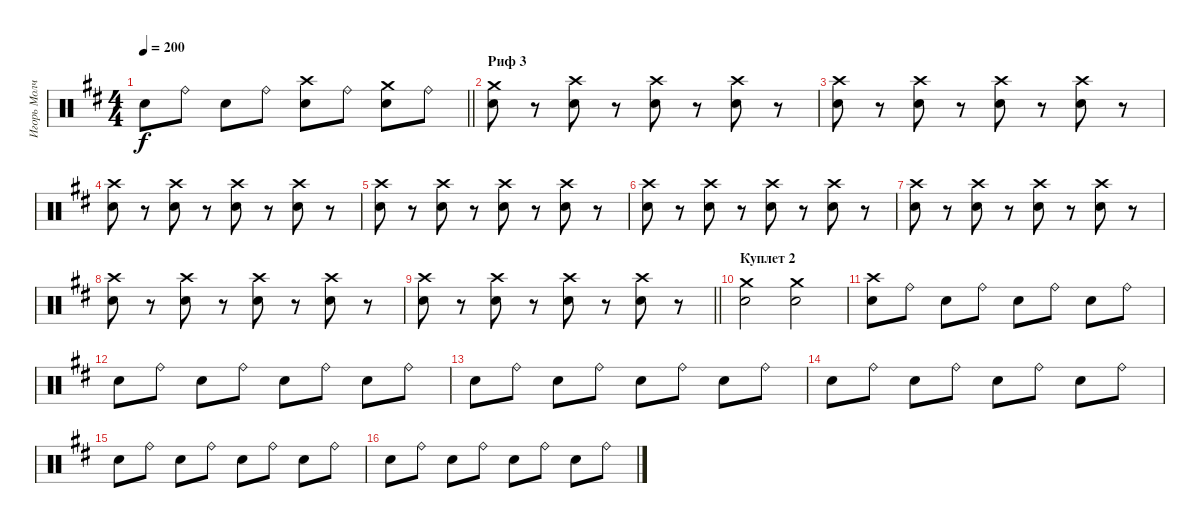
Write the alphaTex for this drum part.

\track ("Игорь Молчанов" "Игорь Молч") {instrument percussion}
\staff {score}
\articulation defaults
\ts (4 4)
\tempo 200
\clef neutral
\barLineRight lightlight
\ks d "Snare (hit) 2".8{dy f} "Ride (bell)".8 "Snare (hit) 2".8 "Ride (bell)".8
("Crash high (hit)" "Snare (hit) 2").8 "Ride (bell)".8 ("Crash medium (hit)" "Snare (hit) 2").8 "Ride (bell)".8 |
\section ("" "Риф 3")
("Crash medium (hit)" "Snare (hit) 2").8 r.8 ("Crash high (hit)" "Snare (hit) 2").8 r.8 ("Crash high (hit)" "Snare (hit) 2").8 r.8 ("Crash high (hit)" "Snare (hit) 2").8 r.8 |
("Crash high (hit)" "Snare (hit) 2").8 r.8 ("Crash high (hit)" "Snare (hit) 2").8 r.8 ("Crash high (hit)" "Snare (hit) 2").8 r.8 ("Crash high (hit)" "Snare (hit) 2").8 r.8 |
("Crash high (hit)" "Snare (hit) 2").8 r.8 ("Crash high (hit)" "Snare (hit) 2").8 r.8 ("Crash high (hit)" "Snare (hit) 2").8 r.8 ("Crash high (hit)" "Snare (hit) 2").8 r.8 |
("Crash high (hit)" "Snare (hit) 2").8 r.8 ("Crash high (hit)" "Snare (hit) 2").8 r.8 ("Crash high (hit)" "Snare (hit) 2").8 r.8 ("Crash high (hit)" "Snare (hit) 2").8 r.8 |
("Crash high (hit)" "Snare (hit) 2").8 r.8 ("Crash high (hit)" "Snare (hit) 2").8 r.8 ("Crash high (hit)" "Snare (hit) 2").8 r.8 ("Crash high (hit)" "Snare (hit) 2").8 r.8 |
("Crash high (hit)" "Snare (hit) 2").8 r.8 ("Crash high (hit)" "Snare (hit) 2").8 r.8 ("Crash high (hit)" "Snare (hit) 2").8 r.8 ("Crash high (hit)" "Snare (hit) 2").8 r.8 |
("Crash high (hit)" "Snare (hit) 2").8 r.8 ("Crash high (hit)" "Snare (hit) 2").8 r.8 ("Crash high (hit)" "Snare (hit) 2").8 r.8 ("Crash high (hit)" "Snare (hit) 2").8 r.8 |
\barLineRight lightlight
("Crash high (hit)" "Snare (hit) 2").8 r.8 ("Crash high (hit)" "Snare (hit) 2").8 r.8 ("Crash high (hit)" "Snare (hit) 2").8 r.8 ("Crash high (hit)" "Snare (hit) 2").8 r.8 |
\section ("" "Куплет 2")
("Crash medium (hit)" "Snare (hit) 2").2 ("Crash medium (hit)" "Snare (hit) 2").2 |
("Crash high (hit)" "Snare (hit) 2").8 "Ride (bell)".8 "Snare (hit) 2".8 "Ride (bell)".8 "Snare (hit) 2".8 "Ride (bell)".8 "Snare (hit) 2".8 "Ride (bell)".8 |
"Snare (hit) 2".8 "Ride (bell)".8 "Snare (hit) 2".8 "Ride (bell)".8 "Snare (hit) 2".8 "Ride (bell)".8 "Snare (hit) 2".8 "Ride (bell)".8 |
"Snare (hit) 2".8 "Ride (bell)".8 "Snare (hit) 2".8 "Ride (bell)".8 "Snare (hit) 2".8 "Ride (bell)".8 "Snare (hit) 2".8 "Ride (bell)".8 |
"Snare (hit) 2".8 "Ride (bell)".8 "Snare (hit) 2".8 "Ride (bell)".8 "Snare (hit) 2".8 "Ride (bell)".8 "Snare (hit) 2".8 "Ride (bell)".8 |
"Snare (hit) 2".8 "Ride (bell)".8 "Snare (hit) 2".8 "Ride (bell)".8 "Snare (hit) 2".8 "Ride (bell)".8 "Snare (hit) 2".8 "Ride (bell)".8 |
"Snare (hit) 2".8 "Ride (bell)".8 "Snare (hit) 2".8 "Ride (bell)".8 "Snare (hit) 2".8 "Ride (bell)".8 "Snare (hit) 2".8 "Ride (bell)".8
